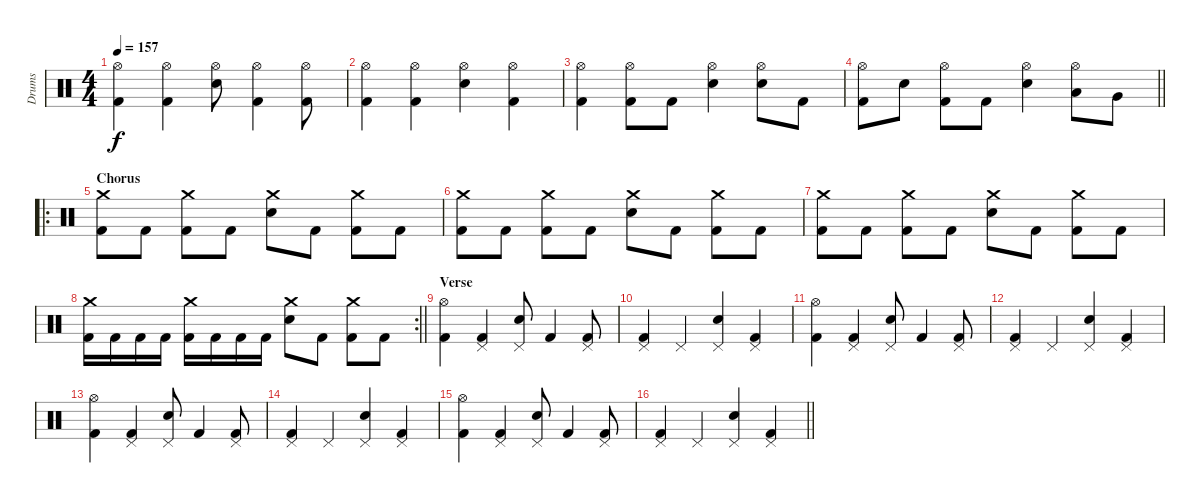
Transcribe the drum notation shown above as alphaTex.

\track ("Drums" "Drums") {instrument percussion}
\staff {score}
\articulation defaults
\ts (4 4)
\tempo 157
\clef neutral
\ks c
("Hi-Hat (open)" "Kick (hit) 2").4{dy f} ("Hi-Hat (open)" "Kick (hit) 2").4 ("Hi-Hat (open)" "Electric Snare (hit)").8 ("Hi-Hat (open)" "Kick (hit) 2").4 ("Hi-Hat (open)" "Kick (hit) 2").8 |
("Hi-Hat (open)" "Kick (hit) 2").4 ("Hi-Hat (open)" "Kick (hit) 2").4 ("Hi-Hat (open)" "Electric Snare (hit)").4 ("Hi-Hat (open)" "Kick (hit) 2").4 |
("Hi-Hat (open)" "Kick (hit) 2").4 ("Hi-Hat (open)" "Kick (hit) 2").8 "Kick (hit) 2".8 ("Hi-Hat (open)" "Electric Snare (hit)").4 ("Hi-Hat (open)" "Electric Snare (hit)").8 "Kick (hit) 2".8 |
\barLineRight lightlight
("Hi-Hat (open)" "Kick (hit) 2").8 "Electric Snare (hit)".8 ("Hi-Hat (open)" "Kick (hit) 2").8 "Kick (hit) 2".8 ("Hi-Hat (open)" "Electric Snare (hit)").4 ("Hi-Hat (open)" "Low Tom (hit)").8 "Very Low Tom (hit)".8 |
\ro
\section ("" "Chorus")
("Crash medium (hit)" "Kick (hit) 2").8 "Kick (hit) 2".8 ("Crash medium (hit)" "Kick (hit) 2").8 "Kick (hit) 2".8 ("Crash medium (hit)" "Electric Snare (hit)").8 "Kick (hit) 2".8 ("Crash medium (hit)" "Kick (hit) 2").8 "Kick (hit) 2".8 |
("Crash medium (hit)" "Kick (hit) 2").8 "Kick (hit) 2".8 ("Crash medium (hit)" "Kick (hit) 2").8 "Kick (hit) 2".8 ("Crash medium (hit)" "Electric Snare (hit)").8 "Kick (hit) 2".8 ("Crash medium (hit)" "Kick (hit) 2").8 "Kick (hit) 2".8 |
("Crash medium (hit)" "Kick (hit) 2").8 "Kick (hit) 2".8 ("Crash medium (hit)" "Kick (hit) 2").8 "Kick (hit) 2".8 ("Crash medium (hit)" "Electric Snare (hit)").8 "Kick (hit) 2".8 ("Crash medium (hit)" "Kick (hit) 2").8 "Kick (hit) 2".8 |
\rc 2
\barLineRight lightlight
("Crash medium (hit)" "Kick (hit) 2").16 "Kick (hit) 2".16 "Kick (hit) 2".16 "Kick (hit) 2".16 ("Crash medium (hit)" "Kick (hit) 2").16 "Kick (hit) 2".16 "Kick (hit) 2".16 "Kick (hit) 2".16 ("Crash medium (hit)" "Electric Snare (hit)").8 "Kick (hit) 2".8 ("Crash medium (hit)" "Kick (hit) 2").8 "Kick (hit) 2".8 |
\section ("" "Verse")
("Hi-Hat (open)" "Kick (hit) 2").4 ("Pedal Hi-Hat (hit)" "Kick (hit) 2").4 ("Pedal Hi-Hat (hit)" "Electric Snare (hit)").8 "Kick (hit) 2".4 ("Pedal Hi-Hat (hit)" "Kick (hit) 2").8 |
("Pedal Hi-Hat (hit)" "Kick (hit) 2").4 "Pedal Hi-Hat (hit)".4 ("Pedal Hi-Hat (hit)" "Electric Snare (hit)").4 ("Pedal Hi-Hat (hit)" "Kick (hit) 2").4 |
("Hi-Hat (open)" "Kick (hit) 2").4 ("Pedal Hi-Hat (hit)" "Kick (hit) 2").4 ("Pedal Hi-Hat (hit)" "Electric Snare (hit)").8 "Kick (hit) 2".4 ("Pedal Hi-Hat (hit)" "Kick (hit) 2").8 |
("Pedal Hi-Hat (hit)" "Kick (hit) 2").4 "Pedal Hi-Hat (hit)".4 ("Pedal Hi-Hat (hit)" "Electric Snare (hit)").4 ("Pedal Hi-Hat (hit)" "Kick (hit) 2").4 |
("Hi-Hat (open)" "Kick (hit) 2").4 ("Pedal Hi-Hat (hit)" "Kick (hit) 2").4 ("Pedal Hi-Hat (hit)" "Electric Snare (hit)").8 "Kick (hit) 2".4 ("Pedal Hi-Hat (hit)" "Kick (hit) 2").8 |
("Pedal Hi-Hat (hit)" "Kick (hit) 2").4 "Pedal Hi-Hat (hit)".4 ("Pedal Hi-Hat (hit)" "Electric Snare (hit)").4 ("Pedal Hi-Hat (hit)" "Kick (hit) 2").4 |
("Hi-Hat (open)" "Kick (hit) 2").4 ("Pedal Hi-Hat (hit)" "Kick (hit) 2").4 ("Pedal Hi-Hat (hit)" "Electric Snare (hit)").8 "Kick (hit) 2".4 ("Pedal Hi-Hat (hit)" "Kick (hit) 2").8 |
\barLineRight lightlight
("Pedal Hi-Hat (hit)" "Kick (hit) 2").4 "Pedal Hi-Hat (hit)".4 ("Pedal Hi-Hat (hit)" "Electric Snare (hit)").4 ("Pedal Hi-Hat (hit)" "Kick (hit) 2").4
